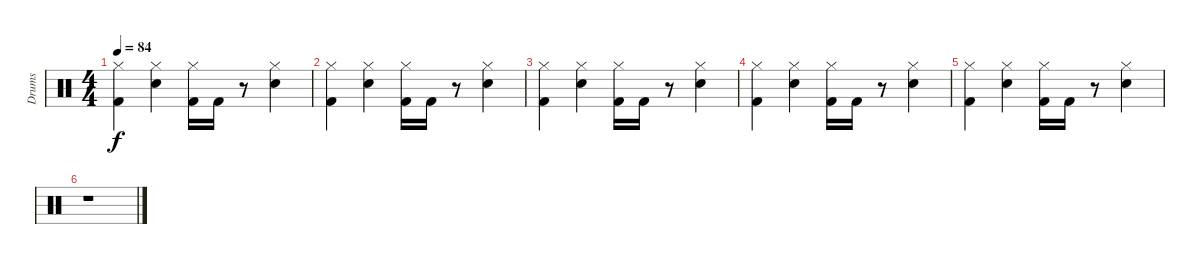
\track ("Drums" "Drums") {instrument percussion}
\staff {score}
\articulation defaults
\ts (4 4)
\tempo 84
\clef neutral
\ks c
("Hi-Hat (closed)" "Kick (hit) 2").4{dy f} ("Hi-Hat (closed)" "Snare (hit) 2").4 ("Hi-Hat (closed)" "Kick (hit) 2").16 "Kick (hit) 2".16 r.8 ("Hi-Hat (closed)" "Snare (hit) 2").4 |
("Hi-Hat (closed)" "Kick (hit) 2").4 ("Hi-Hat (closed)" "Snare (hit) 2").4 ("Hi-Hat (closed)" "Kick (hit) 2").16 "Kick (hit) 2".16 r.8 ("Hi-Hat (closed)" "Snare (hit) 2").4 |
("Hi-Hat (closed)" "Kick (hit) 2").4 ("Hi-Hat (closed)" "Snare (hit) 2").4 ("Hi-Hat (closed)" "Kick (hit) 2").16 "Kick (hit) 2".16 r.8 ("Hi-Hat (closed)" "Snare (hit) 2").4 |
("Hi-Hat (closed)" "Kick (hit) 2").4 ("Hi-Hat (closed)" "Snare (hit) 2").4 ("Hi-Hat (closed)" "Kick (hit) 2").16 "Kick (hit) 2".16 r.8 ("Hi-Hat (closed)" "Snare (hit) 2").4 |
("Hi-Hat (closed)" "Kick (hit) 2").4 ("Hi-Hat (closed)" "Snare (hit) 2").4 ("Hi-Hat (closed)" "Kick (hit) 2").16 "Kick (hit) 2".16 r.8 ("Hi-Hat (closed)" "Snare (hit) 2").4 |
r.1
